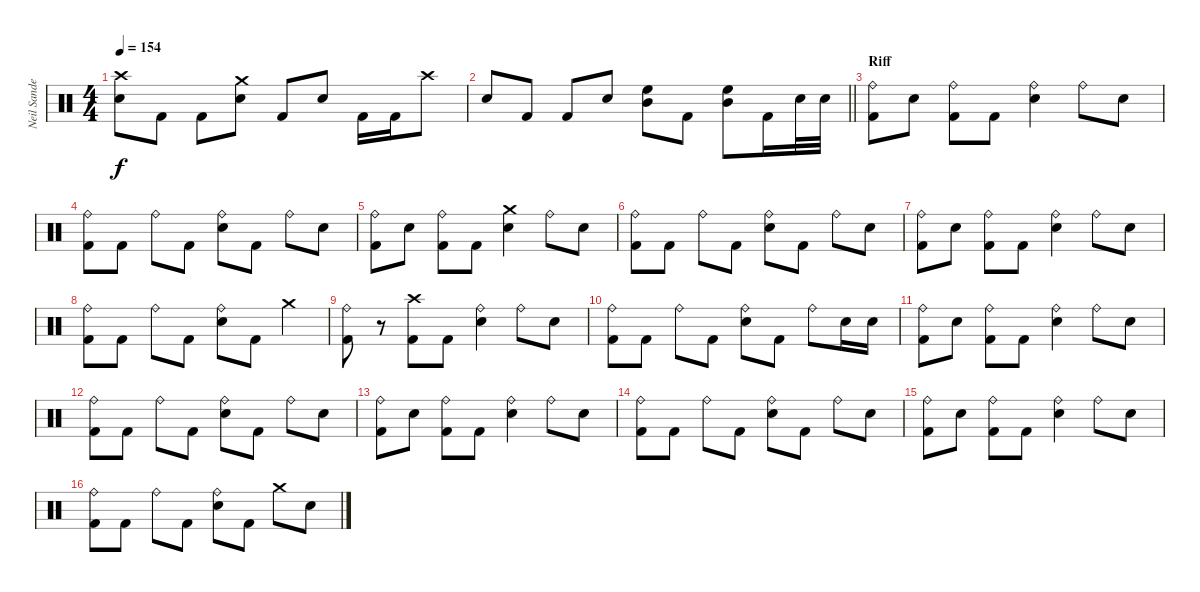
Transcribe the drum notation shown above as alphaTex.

\track ("Neil Sanderson" "Neil Sande") {instrument percussion}
\staff {score}
\articulation defaults
\ts (4 4)
\tempo 154
\clef neutral
\ks c
("Crash high (hit)" "Snare (hit) 2").8{dy f} "Kick (hit) 2".8 "Kick (hit) 2".8 ("Crash medium (hit)" "Snare (hit) 2").8 "Kick (hit) 2".8 "Snare (hit) 2".8 "Kick (hit) 2".16 "Kick (hit) 2".16 "Crash high (hit)".8 |
\barLineRight lightlight "Snare (hit) 2".8 "Kick (hit) 2".8 "Kick (hit) 2".8 "Snare (hit) 2".8
("Mid Tom (hit)" "High Floor Tom (hit)").8 "Kick (hit) 2".8 ("Mid Tom (hit)" "High Floor Tom (hit)").8 "Kick (hit) 2".16 "Snare (hit) 2".32 "Snare (hit) 2".32 |
\section ("" "Riff")
("Ride (bell)" "Kick (hit) 2").8 "Snare (hit) 2".8 ("Ride (bell)" "Kick (hit) 2").8 "Kick (hit) 2".8 ("Ride (bell)" "Snare (hit) 2").4 "Ride (bell)".8 "Snare (hit) 2".8 |
("Ride (bell)" "Kick (hit) 2").8 "Kick (hit) 2".8 "Ride (bell)".8 "Kick (hit) 2".8 ("Ride (bell)" "Snare (hit) 2").8 "Kick (hit) 2".8 "Ride (bell)".8 "Snare (hit) 2".8 |
("Ride (bell)" "Kick (hit) 2").8 "Snare (hit) 2".8 ("Ride (bell)" "Kick (hit) 2").8 "Kick (hit) 2".8 ("Crash medium (hit)" "Snare (hit) 2").4 "Ride (bell)".8 "Snare (hit) 2".8 |
("Ride (bell)" "Kick (hit) 2").8 "Kick (hit) 2".8 "Ride (bell)".8 "Kick (hit) 2".8 ("Ride (bell)" "Snare (hit) 2").8 "Kick (hit) 2".8 "Ride (bell)".8 "Snare (hit) 2".8 |
("Ride (bell)" "Kick (hit) 2").8 "Snare (hit) 2".8 ("Ride (bell)" "Kick (hit) 2").8 "Kick (hit) 2".8 ("Ride (bell)" "Snare (hit) 2").4 "Ride (bell)".8 "Snare (hit) 2".8 |
("Ride (bell)" "Kick (hit) 2").8 "Kick (hit) 2".8 "Ride (bell)".8 "Kick (hit) 2".8 ("Ride (bell)" "Snare (hit) 2").8 "Kick (hit) 2".8 "Crash medium (hit)".4 |
("Ride (bell)" "Kick (hit) 2").8 r.8 ("Crash high (hit)" "Kick (hit) 2").8 "Kick (hit) 2".8 ("Ride (bell)" "Snare (hit) 2").4 "Ride (bell)".8 "Snare (hit) 2".8 |
("Ride (bell)" "Kick (hit) 2").8 "Kick (hit) 2".8 "Ride (bell)".8 "Kick (hit) 2".8 ("Ride (bell)" "Snare (hit) 2").8 "Kick (hit) 2".8 "Ride (bell)".8 "Snare (hit) 2".16 "Snare (hit) 2".16 |
("Ride (bell)" "Kick (hit) 2").8 "Snare (hit) 2".8 ("Ride (bell)" "Kick (hit) 2").8 "Kick (hit) 2".8 ("Ride (bell)" "Snare (hit) 2").4 "Ride (bell)".8 "Snare (hit) 2".8 |
("Ride (bell)" "Kick (hit) 2").8 "Kick (hit) 2".8 "Ride (bell)".8 "Kick (hit) 2".8 ("Ride (bell)" "Snare (hit) 2").8 "Kick (hit) 2".8 "Ride (bell)".8 "Snare (hit) 2".8 |
("Ride (bell)" "Kick (hit) 2").8 "Snare (hit) 2".8 ("Ride (bell)" "Kick (hit) 2").8 "Kick (hit) 2".8 ("Ride (bell)" "Snare (hit) 2").4 "Ride (bell)".8 "Snare (hit) 2".8 |
("Ride (bell)" "Kick (hit) 2").8 "Kick (hit) 2".8 "Ride (bell)".8 "Kick (hit) 2".8 ("Ride (bell)" "Snare (hit) 2").8 "Kick (hit) 2".8 "Ride (bell)".8 "Snare (hit) 2".8 |
("Ride (bell)" "Kick (hit) 2").8 "Snare (hit) 2".8 ("Ride (bell)" "Kick (hit) 2").8 "Kick (hit) 2".8 ("Ride (bell)" "Snare (hit) 2").4 "Ride (bell)".8 "Snare (hit) 2".8 |
("Ride (bell)" "Kick (hit) 2").8 "Kick (hit) 2".8 "Ride (bell)".8 "Kick (hit) 2".8 ("Ride (bell)" "Snare (hit) 2").8 "Kick (hit) 2".8 "Crash medium (hit)".8 "Snare (hit) 2".8
